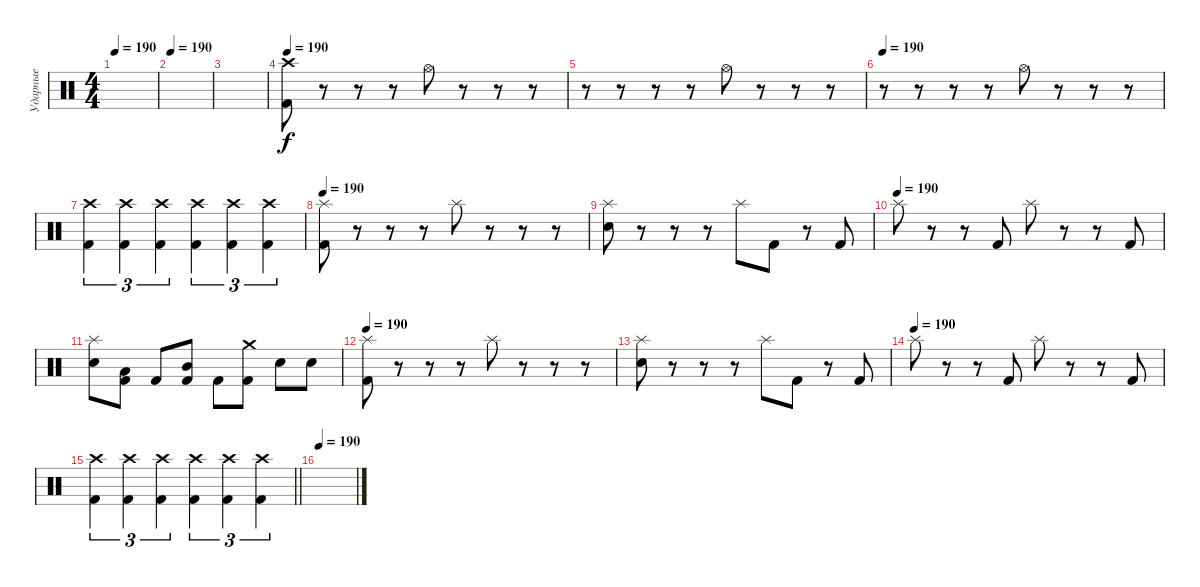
\track ("Ударные" "Ударные") {instrument percussion}
\staff {score}
\articulation defaults
\ts (4 4)
\tempo 190
\clef neutral
\ks c
|
\tempo 190
|
|
\tempo 190
("Kick (hit) 2" "Crash high (hit)").8 r.8 r.8 r.8 "Hi-Hat (open)".8 r.8 r.8 r.8 |
r.8 r.8 r.8 r.8 "Hi-Hat (open)".8 r.8 r.8 r.8 |
\tempo 190
r.8 r.8 r.8 r.8 "Hi-Hat (open)".8 r.8 r.8 r.8 |
("Kick (hit) 2" "Crash high (hit)").4{tu (3 2)} ("Kick (hit) 2" "Crash high (hit)").4{tu (3 2)} ("Kick (hit) 2" "Crash high (hit)").4{tu (3 2)} ("Kick (hit) 2" "Crash high (hit)").4{tu (3 2)} ("Kick (hit) 2" "Crash high (hit)").4{tu (3 2)} ("Kick (hit) 2" "Crash high (hit)").4{tu (3 2)} |
\tempo 190
("Kick (hit) 2" "Splash (hit)").8 r.8 r.8 r.8 "Splash (hit)".8 r.8 r.8 r.8 |
("Electric Snare (hit)" "Splash (hit)").8 r.8 r.8 r.8 "Splash (hit)".8 "Kick (hit) 2".8 r.8 "Kick (hit) 2".8 |
\tempo (190)
"Splash (hit)".8 r.8 r.8 "Kick (hit) 2".8 "Splash (hit)".8 r.8 r.8 "Kick (hit) 2".8 |
("Electric Snare (hit)" "Splash (hit)").8 ("Kick (hit) 2" "Low Tom (hit)").8 "Kick (hit) 2".8 ("Kick (hit) 2" "Mid Tom (hit)").8 "Kick (hit) 2".8 ("Kick (hit) 2" "Crash medium (hit)").8 "Electric Snare (hit)".8 "Electric Snare (hit)".8 |
\tempo 190
("Kick (hit) 2" "Splash (hit)").8 r.8 r.8 r.8 "Splash (hit)".8 r.8 r.8 r.8 |
("Electric Snare (hit)" "Splash (hit)").8 r.8 r.8 r.8 "Splash (hit)".8 "Kick (hit) 2".8 r.8 "Kick (hit) 2".8 |
\tempo (190)
"Splash (hit)".8 r.8 r.8 "Kick (hit) 2".8 "Splash (hit)".8 r.8 r.8 "Kick (hit) 2".8 |
\barLineRight lightlight
("Kick (hit) 2" "Crash high (hit)").4{tu (3 2)} ("Kick (hit) 2" "Crash high (hit)").4{tu (3 2)} ("Kick (hit) 2" "Crash high (hit)").4{tu (3 2)} ("Kick (hit) 2" "Crash high (hit)").4{tu (3 2)} ("Kick (hit) 2" "Crash high (hit)").4{tu (3 2)} ("Kick (hit) 2" "Crash high (hit)").4{tu (3 2)} |
\section ("" "")
\tempo 190
